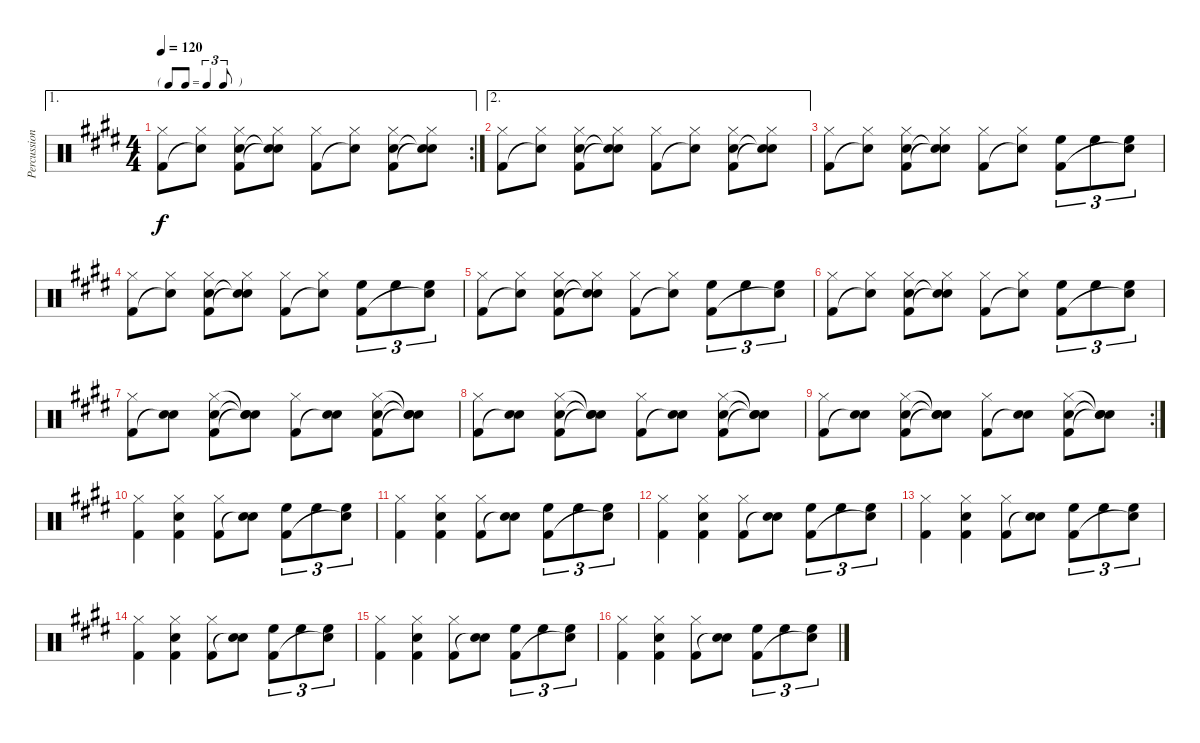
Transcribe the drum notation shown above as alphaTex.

\track ("Percussion" "Percussion") {instrument percussion}
\staff {score}
\articulation defaults
\ae 1
\rc 2
\ts (4 4)
\tf triplet8th
\tempo 120
\clef neutral
\ks e
("Hi-Hat (closed)" "Kick (hit) 2").8{dy f} ("Hi-Hat (closed)" "Snare (hit)"{t}).8 ("Hi-Hat (closed)" "Snare (hit) 2" "Kick (hit) 2").8 ("Hi-Hat (closed)" "Snare (hit)"{t} "Snare (hit)"{t}).8 ("Hi-Hat (closed)" "Kick (hit) 2").8 ("Hi-Hat (closed)" "Snare (hit)"{t}).8 ("Hi-Hat (closed)" "Snare (hit) 2" "Kick (hit) 2").8 ("Hi-Hat (closed)" "Snare (hit)"{t} "Snare (hit)"{t}).8 |
\ae 2
("Hi-Hat (closed)" "Kick (hit) 2").8 ("Hi-Hat (closed)" "Snare (hit)"{t}).8 ("Hi-Hat (closed)" "Snare (hit) 2" "Kick (hit) 2").8 ("Hi-Hat (closed)" "Snare (hit)"{t} "Snare (hit)"{t}).8 ("Hi-Hat (closed)" "Kick (hit) 2").8 ("Hi-Hat (closed)" "Snare (hit)"{t}).8 ("Hi-Hat (closed)" "Snare (hit) 2" "Kick (hit) 2").8 ("Hi-Hat (closed)" "Snare (hit)"{t} "Snare (hit)"{t}).8 |
("Hi-Hat (closed)" "Kick (hit) 2").8 ("Hi-Hat (closed)" "Snare (hit)"{t}).8 ("Hi-Hat (closed)" "Snare (hit) 2" "Kick (hit) 2").8 ("Hi-Hat (closed)" "Snare (hit)"{t} "Snare (hit)"{t}).8 ("Hi-Hat (closed)" "Kick (hit) 2").8 ("Hi-Hat (closed)" "Snare (hit)"{t}).8 ("High Floor Tom (hit)" "Kick (hit) 2").8{tu (3 2)} "High Floor Tom (hit)".8{tu (3 2)} ("High Floor Tom (hit)" "Snare (hit)"{t}).8{tu (3 2)} |
("Hi-Hat (closed)" "Kick (hit) 2").8 ("Hi-Hat (closed)" "Snare (hit)"{t}).8 ("Hi-Hat (closed)" "Snare (hit) 2" "Kick (hit) 2").8 ("Hi-Hat (closed)" "Snare (hit)"{t} "Snare (hit)"{t}).8 ("Hi-Hat (closed)" "Kick (hit) 2").8 ("Hi-Hat (closed)" "Snare (hit)"{t}).8 ("High Floor Tom (hit)" "Kick (hit) 2").8{tu (3 2)} "High Floor Tom (hit)".8{tu (3 2)} ("High Floor Tom (hit)" "Snare (hit)"{t}).8{tu (3 2)} |
("Hi-Hat (closed)" "Kick (hit) 2").8 ("Hi-Hat (closed)" "Snare (hit)"{t}).8 ("Hi-Hat (closed)" "Snare (hit) 2" "Kick (hit) 2").8 ("Hi-Hat (closed)" "Snare (hit)"{t} "Snare (hit)"{t}).8 ("Hi-Hat (closed)" "Kick (hit) 2").8 ("Hi-Hat (closed)" "Snare (hit)"{t}).8 ("High Floor Tom (hit)" "Kick (hit) 2").8{tu (3 2)} "High Floor Tom (hit)".8{tu (3 2)} ("High Floor Tom (hit)" "Snare (hit)"{t}).8{tu (3 2)} |
("Hi-Hat (closed)" "Kick (hit) 2").8 ("Hi-Hat (closed)" "Snare (hit)"{t}).8 ("Hi-Hat (closed)" "Snare (hit) 2" "Kick (hit) 2").8 ("Hi-Hat (closed)" "Snare (hit)"{t} "Snare (hit)"{t}).8 ("Hi-Hat (closed)" "Kick (hit) 2").8 ("Hi-Hat (closed)" "Snare (hit)"{t}).8 ("High Floor Tom (hit)" "Kick (hit) 2").8{tu (3 2)} "High Floor Tom (hit)".8{tu (3 2)} ("High Floor Tom (hit)" "Snare (hit)"{t}).8{tu (3 2)} |
("Hi-Hat (closed)" "Kick (hit) 2").8 ("Snare (hit) 2" "Snare (hit)"{t}).8 ("Hi-Hat (closed)" "Snare (hit) 2" "Kick (hit) 2").8 ("Snare (hit)"{t} "Snare (hit)"{t} "Snare (hit)"{t}).8 ("Hi-Hat (closed)" "Kick (hit) 2").8 ("Snare (hit) 2" "Snare (hit)"{t}).8 ("Hi-Hat (closed)" "Snare (hit) 2" "Kick (hit) 2").8 ("Snare (hit)"{t} "Snare (hit)"{t} "Snare (hit)"{t}).8 |
("Hi-Hat (closed)" "Kick (hit) 2").8 ("Snare (hit) 2" "Snare (hit)"{t}).8 ("Hi-Hat (closed)" "Snare (hit) 2" "Kick (hit) 2").8 ("Snare (hit)"{t} "Snare (hit)"{t} "Snare (hit)"{t}).8 ("Hi-Hat (closed)" "Kick (hit) 2").8 ("Snare (hit) 2" "Snare (hit)"{t}).8 ("Hi-Hat (closed)" "Snare (hit) 2" "Kick (hit) 2").8 ("Snare (hit)"{t} "Snare (hit)"{t} "Snare (hit)"{t}).8 |
\rc 2
("Hi-Hat (closed)" "Kick (hit) 2").8 ("Snare (hit) 2" "Snare (hit)"{t}).8 ("Hi-Hat (closed)" "Snare (hit) 2" "Kick (hit) 2").8 ("Snare (hit)"{t} "Snare (hit)"{t} "Snare (hit)"{t}).8 ("Hi-Hat (closed)" "Kick (hit) 2").8 ("Snare (hit) 2" "Snare (hit)"{t}).8 ("Hi-Hat (closed)" "Snare (hit) 2" "Kick (hit) 2").8 ("Snare (hit)"{t} "Snare (hit)"{t} "Snare (hit)"{t}).8 |
("Hi-Hat (closed)" "Kick (hit) 2").4 ("Hi-Hat (closed)" "Snare (hit) 2" "Kick (hit) 2").4 ("Hi-Hat (closed)" "Kick (hit) 2").8 ("Snare (hit) 2" "Snare (hit)"{t}).8 ("High Floor Tom (hit)" "Kick (hit) 2").8{tu (3 2)} "High Floor Tom (hit)".8{tu (3 2)} ("High Floor Tom (hit)" "Snare (hit)"{t}).8{tu (3 2)} |
("Hi-Hat (closed)" "Kick (hit) 2").4 ("Hi-Hat (closed)" "Snare (hit) 2" "Kick (hit) 2").4 ("Hi-Hat (closed)" "Kick (hit) 2").8 ("Snare (hit) 2" "Snare (hit)"{t}).8 ("High Floor Tom (hit)" "Kick (hit) 2").8{tu (3 2)} "High Floor Tom (hit)".8{tu (3 2)} ("High Floor Tom (hit)" "Snare (hit)"{t}).8{tu (3 2)} |
("Hi-Hat (closed)" "Kick (hit) 2").4 ("Hi-Hat (closed)" "Snare (hit) 2" "Kick (hit) 2").4 ("Hi-Hat (closed)" "Kick (hit) 2").8 ("Snare (hit) 2" "Snare (hit)"{t}).8 ("High Floor Tom (hit)" "Kick (hit) 2").8{tu (3 2)} "High Floor Tom (hit)".8{tu (3 2)} ("High Floor Tom (hit)" "Snare (hit)"{t}).8{tu (3 2)} |
("Hi-Hat (closed)" "Kick (hit) 2").4 ("Hi-Hat (closed)" "Snare (hit) 2" "Kick (hit) 2").4 ("Hi-Hat (closed)" "Kick (hit) 2").8 ("Snare (hit) 2" "Snare (hit)"{t}).8 ("High Floor Tom (hit)" "Kick (hit) 2").8{tu (3 2)} "High Floor Tom (hit)".8{tu (3 2)} ("High Floor Tom (hit)" "Snare (hit)"{t}).8{tu (3 2)} |
("Hi-Hat (closed)" "Kick (hit) 2").4 ("Hi-Hat (closed)" "Snare (hit) 2" "Kick (hit) 2").4 ("Hi-Hat (closed)" "Kick (hit) 2").8 ("Snare (hit) 2" "Snare (hit)"{t}).8 ("High Floor Tom (hit)" "Kick (hit) 2").8{tu (3 2)} "High Floor Tom (hit)".8{tu (3 2)} ("High Floor Tom (hit)" "Snare (hit)"{t}).8{tu (3 2)} |
("Hi-Hat (closed)" "Kick (hit) 2").4 ("Hi-Hat (closed)" "Snare (hit) 2" "Kick (hit) 2").4 ("Hi-Hat (closed)" "Kick (hit) 2").8 ("Snare (hit) 2" "Snare (hit)"{t}).8 ("High Floor Tom (hit)" "Kick (hit) 2").8{tu (3 2)} "High Floor Tom (hit)".8{tu (3 2)} ("High Floor Tom (hit)" "Snare (hit)"{t}).8{tu (3 2)} |
("Hi-Hat (closed)" "Kick (hit) 2").4 ("Hi-Hat (closed)" "Snare (hit) 2" "Kick (hit) 2").4 ("Hi-Hat (closed)" "Kick (hit) 2").8 ("Snare (hit) 2" "Snare (hit)"{t}).8 ("High Floor Tom (hit)" "Kick (hit) 2").8{tu (3 2)} "High Floor Tom (hit)".8{tu (3 2)} ("High Floor Tom (hit)" "Snare (hit)"{t}).8{tu (3 2)}
